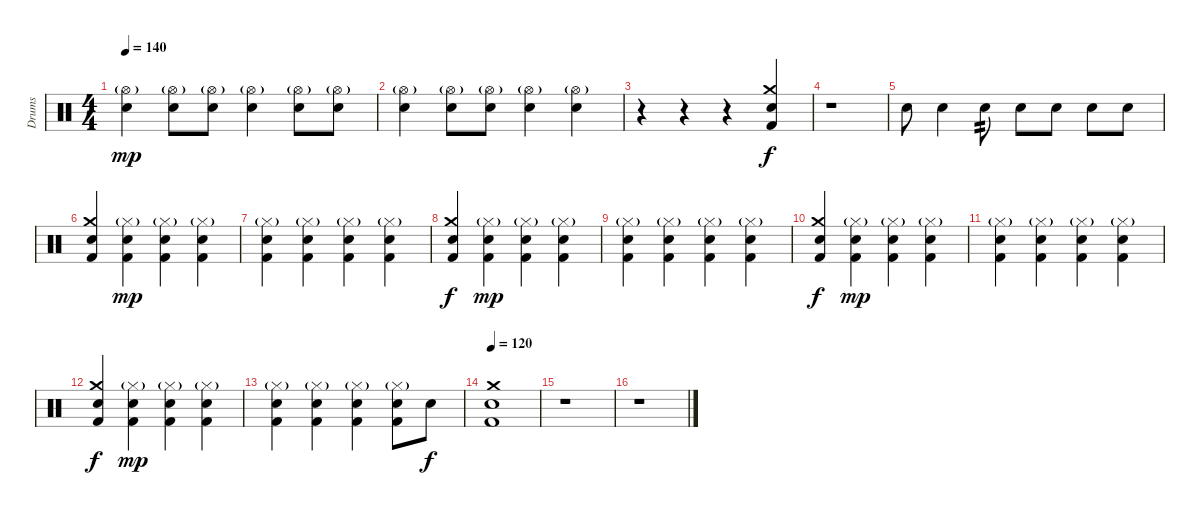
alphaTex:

\track ("Drums" "Drums") {instrument percussion}
\staff {score}
\articulation defaults
\ts (4 4)
\tempo 140
\clef neutral
\ks c
("Hi-Hat (open)"{g} "Electric Snare (hit)").4{dy mp} ("Hi-Hat (open)"{g} "Electric Snare (hit)").8 ("Hi-Hat (open)"{g} "Electric Snare (hit)").8 ("Hi-Hat (open)"{g} "Electric Snare (hit)").4 ("Hi-Hat (open)"{g} "Electric Snare (hit)").8 ("Hi-Hat (open)"{g} "Electric Snare (hit)").8 |
("Hi-Hat (open)"{g} "Electric Snare (hit)").4 ("Hi-Hat (open)"{g} "Electric Snare (hit)").8 ("Hi-Hat (open)"{g} "Electric Snare (hit)").8 ("Hi-Hat (open)"{g} "Electric Snare (hit)").4 ("Hi-Hat (open)"{g} "Electric Snare (hit)").4 |
r.4 r.4 r.4 ("Crash medium (hit)" "Electric Snare (hit)" "Kick (hit) 2").4{dy f} |
r.1 |
"Electric Snare (hit)".8 "Snare (hit) 2".4 "Electric Snare (hit)".8{tp 2} "Electric Snare (hit)".8 "Electric Snare (hit)".8 "Snare (hit) 2".8 "Snare (hit) 2".8 |
("Crash medium (hit)" "Electric Snare (hit)" "Kick (hit) 2").4 ("Hi-Hat (closed)"{g} "Electric Snare (hit)" "Kick (hit) 2").4{dy mp} ("Hi-Hat (closed)"{g} "Electric Snare (hit)" "Kick (hit) 2").4 ("Hi-Hat (closed)"{g} "Electric Snare (hit)" "Kick (hit) 2").4 |
("Hi-Hat (closed)"{g} "Electric Snare (hit)" "Kick (hit) 2").4 ("Hi-Hat (closed)"{g} "Electric Snare (hit)" "Kick (hit) 2").4 ("Hi-Hat (closed)"{g} "Electric Snare (hit)" "Kick (hit) 2").4 ("Hi-Hat (closed)"{g} "Electric Snare (hit)" "Kick (hit) 2").4 |
("Crash medium (hit)" "Electric Snare (hit)" "Kick (hit) 2").4{dy f} ("Hi-Hat (closed)"{g} "Electric Snare (hit)" "Kick (hit) 2").4{dy mp} ("Hi-Hat (closed)"{g} "Electric Snare (hit)" "Kick (hit) 2").4 ("Hi-Hat (closed)"{g} "Electric Snare (hit)" "Kick (hit) 2").4 |
("Hi-Hat (closed)"{g} "Electric Snare (hit)" "Kick (hit) 2").4 ("Hi-Hat (closed)"{g} "Electric Snare (hit)" "Kick (hit) 2").4 ("Hi-Hat (closed)"{g} "Electric Snare (hit)" "Kick (hit) 2").4 ("Hi-Hat (closed)"{g} "Electric Snare (hit)" "Kick (hit) 2").4 |
("Crash medium (hit)" "Electric Snare (hit)" "Kick (hit) 2").4{dy f} ("Hi-Hat (closed)"{g} "Electric Snare (hit)" "Kick (hit) 2").4{dy mp} ("Hi-Hat (closed)"{g} "Electric Snare (hit)" "Kick (hit) 2").4 ("Hi-Hat (closed)"{g} "Electric Snare (hit)" "Kick (hit) 2").4 |
("Hi-Hat (closed)"{g} "Electric Snare (hit)" "Kick (hit) 2").4 ("Hi-Hat (closed)"{g} "Electric Snare (hit)" "Kick (hit) 2").4 ("Hi-Hat (closed)"{g} "Electric Snare (hit)" "Kick (hit) 2").4 ("Hi-Hat (closed)"{g} "Electric Snare (hit)" "Kick (hit) 2").4 |
("Crash medium (hit)" "Electric Snare (hit)" "Kick (hit) 2").4{dy f} ("Hi-Hat (closed)"{g} "Electric Snare (hit)" "Kick (hit) 2").4{dy mp} ("Hi-Hat (closed)"{g} "Electric Snare (hit)" "Kick (hit) 2").4 ("Hi-Hat (closed)"{g} "Electric Snare (hit)" "Kick (hit) 2").4 |
("Hi-Hat (closed)"{g} "Electric Snare (hit)" "Kick (hit) 2").4 ("Hi-Hat (closed)"{g} "Electric Snare (hit)" "Kick (hit) 2").4 ("Hi-Hat (closed)"{g} "Electric Snare (hit)" "Kick (hit) 2").4 ("Hi-Hat (closed)"{g} "Electric Snare (hit)" "Kick (hit) 2").8 "Electric Snare (hit)".8{dy f} |
\tempo 120
("Crash medium (hit)" "Electric Snare (hit)" "Kick (hit) 2").1 |
r.1 |
r.1
